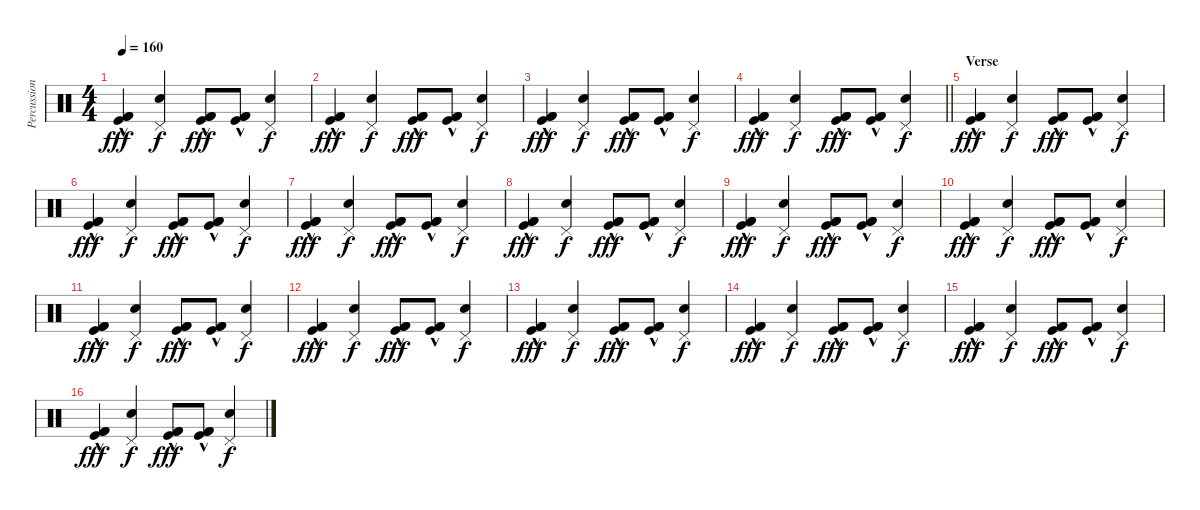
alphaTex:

\track ("Percussion" "Percussion") {instrument percussion}
\staff {score}
\articulation defaults
\ts (4 4)
\tempo 160
\clef neutral
\ks c
("Kick (hit) 2"{hac} "Kick (hit)"{hac} "Kick (hit) 2").4{dy fff} ("Snare (hit) 2" "Pedal Hi-Hat (hit)").4{dy f} ("Kick (hit) 2"{hac} "Kick (hit)"{hac} "Kick (hit) 2").8{dy fff} ("Kick (hit) 2"{hac} "Kick (hit)"{hac} "Kick (hit) 2"{hac}).8 ("Snare (hit) 2" "Pedal Hi-Hat (hit)").4{dy f} |
("Kick (hit) 2"{hac} "Kick (hit)"{hac} "Kick (hit) 2").4{dy fff} ("Snare (hit) 2" "Pedal Hi-Hat (hit)").4{dy f} ("Kick (hit) 2"{hac} "Kick (hit)"{hac} "Kick (hit) 2").8{dy fff} ("Kick (hit) 2"{hac} "Kick (hit)"{hac} "Kick (hit) 2"{hac}).8 ("Snare (hit) 2" "Pedal Hi-Hat (hit)").4{dy f} |
("Kick (hit) 2"{hac} "Kick (hit)"{hac} "Kick (hit) 2").4{dy fff} ("Snare (hit) 2" "Pedal Hi-Hat (hit)").4{dy f} ("Kick (hit) 2"{hac} "Kick (hit)"{hac} "Kick (hit) 2").8{dy fff} ("Kick (hit) 2"{hac} "Kick (hit)"{hac} "Kick (hit) 2"{hac}).8 ("Snare (hit) 2" "Pedal Hi-Hat (hit)").4{dy f} |
\barLineRight lightlight
("Kick (hit) 2"{hac} "Kick (hit)"{hac} "Kick (hit) 2").4{dy fff} ("Snare (hit) 2" "Pedal Hi-Hat (hit)").4{dy f} ("Kick (hit) 2"{hac} "Kick (hit)"{hac} "Kick (hit) 2").8{dy fff} ("Kick (hit) 2"{hac} "Kick (hit)"{hac} "Kick (hit) 2"{hac}).8 ("Snare (hit) 2" "Pedal Hi-Hat (hit)").4{dy f} |
\section ("" "Verse")
("Kick (hit) 2"{hac} "Kick (hit)"{hac} "Kick (hit) 2").4{dy fff} ("Snare (hit) 2" "Pedal Hi-Hat (hit)").4{dy f} ("Kick (hit) 2"{hac} "Kick (hit)"{hac} "Kick (hit) 2").8{dy fff} ("Kick (hit) 2"{hac} "Kick (hit)"{hac} "Kick (hit) 2"{hac}).8 ("Snare (hit) 2" "Pedal Hi-Hat (hit)").4{dy f} |
("Kick (hit) 2"{hac} "Kick (hit)"{hac} "Kick (hit) 2").4{dy fff} ("Snare (hit) 2" "Pedal Hi-Hat (hit)").4{dy f} ("Kick (hit) 2"{hac} "Kick (hit)"{hac} "Kick (hit) 2").8{dy fff} ("Kick (hit) 2"{hac} "Kick (hit)"{hac} "Kick (hit) 2"{hac}).8 ("Snare (hit) 2" "Pedal Hi-Hat (hit)").4{dy f} |
("Kick (hit) 2"{hac} "Kick (hit)"{hac} "Kick (hit) 2").4{dy fff} ("Snare (hit) 2" "Pedal Hi-Hat (hit)").4{dy f} ("Kick (hit) 2"{hac} "Kick (hit)"{hac} "Kick (hit) 2").8{dy fff} ("Kick (hit) 2"{hac} "Kick (hit)"{hac} "Kick (hit) 2"{hac}).8 ("Snare (hit) 2" "Pedal Hi-Hat (hit)").4{dy f} |
("Kick (hit) 2"{hac} "Kick (hit)"{hac} "Kick (hit) 2").4{dy fff} ("Snare (hit) 2" "Pedal Hi-Hat (hit)").4{dy f} ("Kick (hit) 2"{hac} "Kick (hit)"{hac} "Kick (hit) 2").8{dy fff} ("Kick (hit) 2"{hac} "Kick (hit)"{hac} "Kick (hit) 2"{hac}).8 ("Snare (hit) 2" "Pedal Hi-Hat (hit)").4{dy f} |
("Kick (hit) 2"{hac} "Kick (hit)"{hac} "Kick (hit) 2").4{dy fff} ("Snare (hit) 2" "Pedal Hi-Hat (hit)").4{dy f} ("Kick (hit) 2"{hac} "Kick (hit)"{hac} "Kick (hit) 2").8{dy fff} ("Kick (hit) 2"{hac} "Kick (hit)"{hac} "Kick (hit) 2"{hac}).8 ("Snare (hit) 2" "Pedal Hi-Hat (hit)").4{dy f} |
("Kick (hit) 2"{hac} "Kick (hit)"{hac} "Kick (hit) 2").4{dy fff} ("Snare (hit) 2" "Pedal Hi-Hat (hit)").4{dy f} ("Kick (hit) 2"{hac} "Kick (hit)"{hac} "Kick (hit) 2").8{dy fff} ("Kick (hit) 2"{hac} "Kick (hit)"{hac} "Kick (hit) 2"{hac}).8 ("Snare (hit) 2" "Pedal Hi-Hat (hit)").4{dy f} |
("Kick (hit) 2"{hac} "Kick (hit)"{hac} "Kick (hit) 2").4{dy fff} ("Snare (hit) 2" "Pedal Hi-Hat (hit)").4{dy f} ("Kick (hit) 2"{hac} "Kick (hit)"{hac} "Kick (hit) 2").8{dy fff} ("Kick (hit) 2"{hac} "Kick (hit)"{hac} "Kick (hit) 2"{hac}).8 ("Snare (hit) 2" "Pedal Hi-Hat (hit)").4{dy f} |
("Kick (hit) 2"{hac} "Kick (hit)"{hac} "Kick (hit) 2").4{dy fff} ("Snare (hit) 2" "Pedal Hi-Hat (hit)").4{dy f} ("Kick (hit) 2"{hac} "Kick (hit)"{hac} "Kick (hit) 2").8{dy fff} ("Kick (hit) 2"{hac} "Kick (hit)"{hac} "Kick (hit) 2"{hac}).8 ("Snare (hit) 2" "Pedal Hi-Hat (hit)").4{dy f} |
("Kick (hit) 2"{hac} "Kick (hit)"{hac} "Kick (hit) 2").4{dy fff} ("Snare (hit) 2" "Pedal Hi-Hat (hit)").4{dy f} ("Kick (hit) 2"{hac} "Kick (hit)"{hac} "Kick (hit) 2").8{dy fff} ("Kick (hit) 2"{hac} "Kick (hit)"{hac} "Kick (hit) 2"{hac}).8 ("Snare (hit) 2" "Pedal Hi-Hat (hit)").4{dy f} |
("Kick (hit) 2"{hac} "Kick (hit)"{hac} "Kick (hit) 2").4{dy fff} ("Snare (hit) 2" "Pedal Hi-Hat (hit)").4{dy f} ("Kick (hit) 2"{hac} "Kick (hit)"{hac} "Kick (hit) 2").8{dy fff} ("Kick (hit) 2"{hac} "Kick (hit)"{hac} "Kick (hit) 2"{hac}).8 ("Snare (hit) 2" "Pedal Hi-Hat (hit)").4{dy f} |
("Kick (hit) 2"{hac} "Kick (hit)"{hac} "Kick (hit) 2").4{dy fff} ("Snare (hit) 2" "Pedal Hi-Hat (hit)").4{dy f} ("Kick (hit) 2"{hac} "Kick (hit)"{hac} "Kick (hit) 2").8{dy fff} ("Kick (hit) 2"{hac} "Kick (hit)"{hac} "Kick (hit) 2"{hac}).8 ("Snare (hit) 2" "Pedal Hi-Hat (hit)").4{dy f} |
("Kick (hit) 2"{hac} "Kick (hit)"{hac} "Kick (hit) 2").4{dy fff} ("Snare (hit) 2" "Pedal Hi-Hat (hit)").4{dy f} ("Kick (hit) 2"{hac} "Kick (hit)"{hac} "Kick (hit) 2").8{dy fff} ("Kick (hit) 2"{hac} "Kick (hit)"{hac} "Kick (hit) 2"{hac}).8 ("Snare (hit) 2" "Pedal Hi-Hat (hit)").4{dy f}
